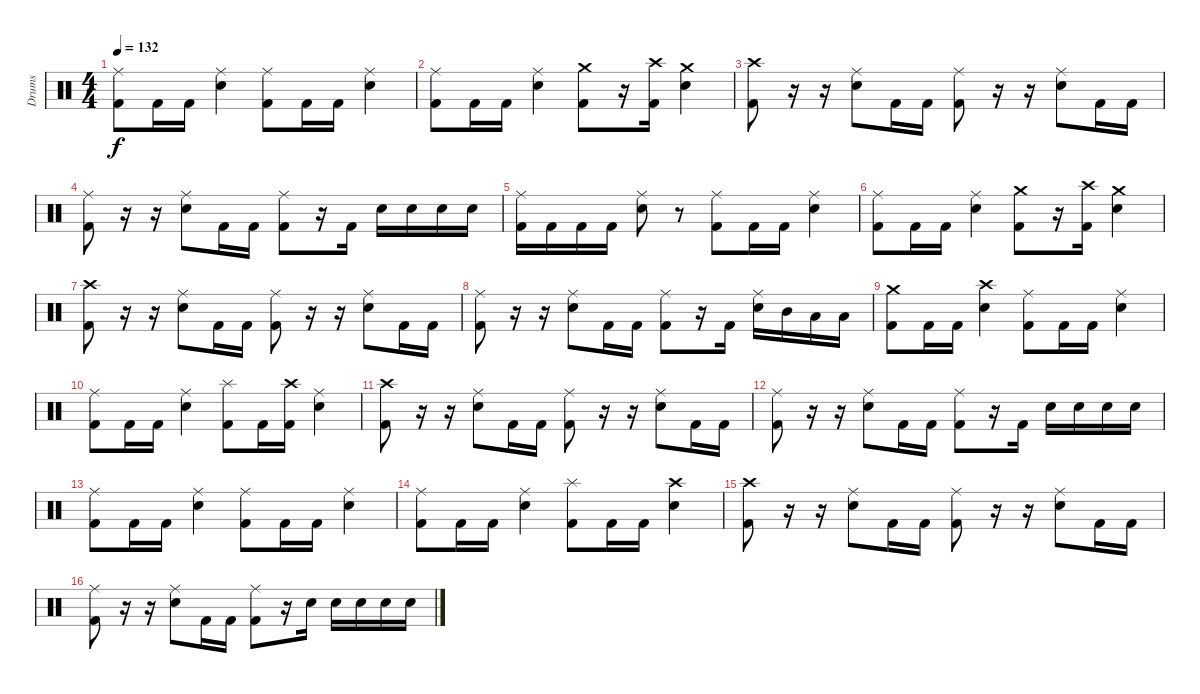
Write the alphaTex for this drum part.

\track ("Drums" "Drums") {instrument percussion}
\staff {score}
\articulation defaults
\ts (4 4)
\tempo 132
\clef neutral
\ks c
("Ride (middle)" "Kick (hit) 2").8{dy f} "Kick (hit) 2".16 "Kick (hit) 2".16 ("Ride (middle)" "Electric Snare (hit)").4 ("Ride (middle)" "Kick (hit) 2").8 "Kick (hit) 2".16 "Kick (hit) 2".16 ("Ride (middle)" "Electric Snare (hit)").4 |
("Ride (middle)" "Kick (hit) 2").8 "Kick (hit) 2".16 "Kick (hit) 2".16 ("Ride (middle)" "Electric Snare (hit)").4 ("Crash medium (hit)" "Kick (hit) 2").8 r.16 ("Crash high (hit)" "Kick (hit) 2").16 ("Crash medium (hit)" "Electric Snare (hit)").4 |
("Crash high (hit)" "Kick (hit) 2").8 r.16 r.16 ("Ride (middle)" "Electric Snare (hit)").8 "Kick (hit) 2".16 "Kick (hit) 2".16 ("Ride (middle)" "Kick (hit) 2").8 r.16 r.16 ("Ride (middle)" "Electric Snare (hit)").8 "Kick (hit) 2".16 "Kick (hit) 2".16 |
("Ride (middle)" "Kick (hit) 2").8 r.16 r.16 ("Ride (middle)" "Electric Snare (hit)").8 "Kick (hit) 2".16 "Kick (hit) 2".16 ("Ride (middle)" "Kick (hit) 2").8 r.16 "Kick (hit) 2".16 "Electric Snare (hit)".16 "Electric Snare (hit)".16 "Electric Snare (hit)".16 "Electric Snare (hit)".16 |
("Ride (middle)" "Kick (hit) 2").16 "Kick (hit) 2".16 "Kick (hit) 2".16 "Kick (hit) 2".16 ("Ride (middle)" "Electric Snare (hit)").8 r.8 ("Ride (middle)" "Kick (hit) 2").8 "Kick (hit) 2".16 "Kick (hit) 2".16 ("Ride (middle)" "Electric Snare (hit)").4 |
("Ride (middle)" "Kick (hit) 2").8 "Kick (hit) 2".16 "Kick (hit) 2".16 ("Ride (middle)" "Electric Snare (hit)").4 ("Crash medium (hit)" "Kick (hit) 2").8 r.16 ("Crash high (hit)" "Kick (hit) 2").16 ("Crash medium (hit)" "Electric Snare (hit)").4 |
("Crash high (hit)" "Kick (hit) 2").8 r.16 r.16 ("Ride (middle)" "Electric Snare (hit)").8 "Kick (hit) 2".16 "Kick (hit) 2".16 ("Ride (middle)" "Kick (hit) 2").8 r.16 r.16 ("Ride (middle)" "Electric Snare (hit)").8 "Kick (hit) 2".16 "Kick (hit) 2".16 |
("Ride (middle)" "Kick (hit) 2").8 r.16 r.16 ("Ride (middle)" "Electric Snare (hit)").8 "Kick (hit) 2".16 "Kick (hit) 2".16 ("Ride (middle)" "Kick (hit) 2").8 r.16 "Kick (hit) 2".16 ("Ride (middle)" "Electric Snare (hit)").16 "Mid Tom (hit)".16 "Low Tom (hit)".16 "Low Floor Tom (hit)".16 |
("Crash medium (hit)" "Kick (hit) 2").8 "Kick (hit) 2".16 "Kick (hit) 2".16 ("Crash high (hit)" "Electric Snare (hit)").4 ("Ride (middle)" "Kick (hit) 2").8 "Kick (hit) 2".16 "Kick (hit) 2".16 ("Ride (middle)" "Electric Snare (hit)").4 |
("Ride (middle)" "Kick (hit) 2").8 "Kick (hit) 2".16 "Kick (hit) 2".16 ("Ride (middle)" "Electric Snare (hit)").4 ("Splash (hit)" "Kick (hit) 2").8 "Kick (hit) 2".16 ("Crash high (hit)" "Kick (hit) 2").16 ("Ride (middle)" "Electric Snare (hit)").4 |
("Crash high (hit)" "Kick (hit) 2").8 r.16 r.16 ("Ride (middle)" "Electric Snare (hit)").8 "Kick (hit) 2".16 "Kick (hit) 2".16 ("Ride (middle)" "Kick (hit) 2").8 r.16 r.16 ("Ride (middle)" "Electric Snare (hit)").8 "Kick (hit) 2".16 "Kick (hit) 2".16 |
("Ride (middle)" "Kick (hit) 2").8 r.16 r.16 ("Ride (middle)" "Electric Snare (hit)").8 "Kick (hit) 2".16 "Kick (hit) 2".16 ("Ride (middle)" "Kick (hit) 2").8 r.16 "Kick (hit) 2".16 "Electric Snare (hit)".16 "Electric Snare (hit)".16 "Electric Snare (hit)".16 "Electric Snare (hit)".16 |
("Ride (middle)" "Kick (hit) 2").8 "Kick (hit) 2".16 "Kick (hit) 2".16 ("Ride (middle)" "Electric Snare (hit)").4 ("Ride (middle)" "Kick (hit) 2").8 "Kick (hit) 2".16 "Kick (hit) 2".16 ("Ride (middle)" "Electric Snare (hit)").4 |
("Ride (middle)" "Kick (hit) 2").8 "Kick (hit) 2".16 "Kick (hit) 2".16 ("Ride (middle)" "Electric Snare (hit)").4 ("Splash (hit)" "Kick (hit) 2").8 "Kick (hit) 2".16 "Kick (hit) 2".16 ("Crash high (hit)" "Electric Snare (hit)").4 |
("Crash high (hit)" "Kick (hit) 2").8 r.16 r.16 ("Ride (middle)" "Electric Snare (hit)").8 "Kick (hit) 2".16 "Kick (hit) 2".16 ("Ride (middle)" "Kick (hit) 2").8 r.16 r.16 ("Ride (middle)" "Electric Snare (hit)").8 "Kick (hit) 2".16 "Kick (hit) 2".16 |
("Ride (middle)" "Kick (hit) 2").8 r.16 r.16 ("Ride (middle)" "Electric Snare (hit)").8 "Kick (hit) 2".16 "Kick (hit) 2".16 ("Ride (middle)" "Kick (hit) 2").8 r.16 "Electric Snare (hit)".16 "Electric Snare (hit)".16 "Electric Snare (hit)".16 "Electric Snare (hit)".16 "Electric Snare (hit)".16
